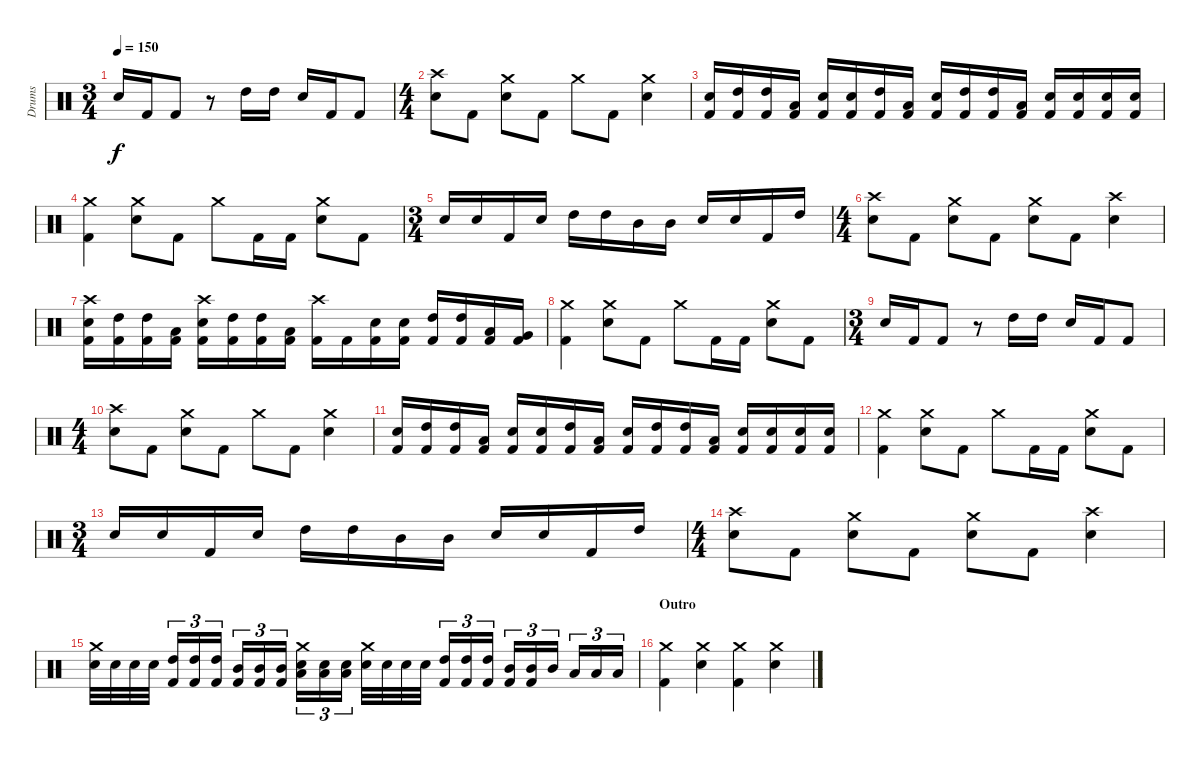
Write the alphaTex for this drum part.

\track ("Drums" "Drums") {instrument percussion}
\staff {score}
\articulation defaults
\ts (3 4)
\tempo 150
\clef neutral
\ks c "Electric Snare (hit)".16{dy f} "Kick (hit) 2".16 "Kick (hit) 2".8
r.8 "High Tom (hit)".16 "High Tom (hit)".16 "Electric Snare (hit)".16 "Kick (hit) 2".16 "Kick (hit) 2".8 |
\ts (4 4)
("Crash high (hit)" "Electric Snare (hit)").8 "Kick (hit) 2".8 ("Crash medium (hit)" "Electric Snare (hit)").8 "Kick (hit) 2".8 "Crash medium (hit)".8 "Kick (hit) 2".8 ("Crash medium (hit)" "Electric Snare (hit)").4 |
("Electric Snare (hit)" "Kick (hit) 2").16 ("High Tom (hit)" "Kick (hit) 2").16 ("High Tom (hit)" "Kick (hit) 2").16 ("Low Tom (hit)" "Kick (hit) 2").16 ("Electric Snare (hit)" "Kick (hit) 2").16 ("Electric Snare (hit)" "Kick (hit) 2").16 ("High Tom (hit)" "Kick (hit) 2").16 ("Low Tom (hit)" "Kick (hit) 2").16 ("Electric Snare (hit)" "Kick (hit) 2").16 ("High Tom (hit)" "Kick (hit) 2").16 ("High Tom (hit)" "Kick (hit) 2").16 ("Low Tom (hit)" "Kick (hit) 2").16 ("Electric Snare (hit)" "Kick (hit) 2").16 ("Electric Snare (hit)" "Kick (hit) 2").16 ("Electric Snare (hit)" "Kick (hit) 2").16 ("Electric Snare (hit)" "Kick (hit) 2").16 |
("Crash medium (hit)" "Kick (hit) 2").4 ("Crash medium (hit)" "Electric Snare (hit)").8 "Kick (hit) 2".8 "Crash medium (hit)".8 "Kick (hit) 2".16 "Kick (hit) 2".16 ("Crash medium (hit)" "Electric Snare (hit)").8 "Kick (hit) 2".8 |
\ts (3 4)
"Electric Snare (hit)".16 "Electric Snare (hit)".16 "Kick (hit) 2".16 "Electric Snare (hit)".16 "High Tom (hit)".16 "High Tom (hit)".16 "Mid Tom (hit)".16 "Mid Tom (hit)".16 "Electric Snare (hit)".16 "Electric Snare (hit)".16 "Kick (hit) 2".16 "High Tom (hit)".16 |
\ts (4 4)
("Crash high (hit)" "Electric Snare (hit)").8 "Kick (hit) 2".8 ("Crash medium (hit)" "Electric Snare (hit)").8 "Kick (hit) 2".8 ("Crash medium (hit)" "Electric Snare (hit)").8 "Kick (hit) 2".8 ("Crash high (hit)" "Electric Snare (hit)").4 |
("Crash high (hit)" "Electric Snare (hit)" "Kick (hit) 2").16 ("High Tom (hit)" "Kick (hit) 2").16 ("High Tom (hit)" "Kick (hit) 2").16 ("Low Tom (hit)" "Kick (hit) 2").16 ("Crash high (hit)" "Electric Snare (hit)" "Kick (hit) 2").16 ("High Tom (hit)" "Kick (hit) 2").16 ("High Tom (hit)" "Kick (hit) 2").16 ("Low Tom (hit)" "Kick (hit) 2").16 ("Crash high (hit)" "Kick (hit) 2").16 "Kick (hit) 2".16 ("Electric Snare (hit)" "Kick (hit) 2").16 ("Electric Snare (hit)" "Kick (hit) 2").16 ("High Tom (hit)" "Kick (hit) 2").16 ("High Tom (hit)" "Kick (hit) 2").16 ("Low Tom (hit)" "Kick (hit) 2").16 ("Very Low Tom (hit)" "Kick (hit) 2").16 |
("Crash medium (hit)" "Kick (hit) 2").4 ("Crash medium (hit)" "Electric Snare (hit)").8 "Kick (hit) 2".8 "Crash medium (hit)".8 "Kick (hit) 2".16 "Kick (hit) 2".16 ("Crash medium (hit)" "Electric Snare (hit)").8 "Kick (hit) 2".8 |
\ts (3 4)
"Electric Snare (hit)".16 "Kick (hit) 2".16 "Kick (hit) 2".8 r.8 "High Tom (hit)".16 "High Tom (hit)".16 "Electric Snare (hit)".16 "Kick (hit) 2".16 "Kick (hit) 2".8 |
\ts (4 4)
("Crash high (hit)" "Electric Snare (hit)").8 "Kick (hit) 2".8 ("Crash medium (hit)" "Electric Snare (hit)").8 "Kick (hit) 2".8 "Crash medium (hit)".8 "Kick (hit) 2".8 ("Crash medium (hit)" "Electric Snare (hit)").4 |
("Electric Snare (hit)" "Kick (hit) 2").16 ("High Tom (hit)" "Kick (hit) 2").16 ("High Tom (hit)" "Kick (hit) 2").16 ("Low Tom (hit)" "Kick (hit) 2").16 ("Electric Snare (hit)" "Kick (hit) 2").16 ("Electric Snare (hit)" "Kick (hit) 2").16 ("High Tom (hit)" "Kick (hit) 2").16 ("Low Tom (hit)" "Kick (hit) 2").16 ("Electric Snare (hit)" "Kick (hit) 2").16 ("High Tom (hit)" "Kick (hit) 2").16 ("High Tom (hit)" "Kick (hit) 2").16 ("Low Tom (hit)" "Kick (hit) 2").16 ("Electric Snare (hit)" "Kick (hit) 2").16 ("Electric Snare (hit)" "Kick (hit) 2").16 ("Electric Snare (hit)" "Kick (hit) 2").16 ("Electric Snare (hit)" "Kick (hit) 2").16 |
("Crash medium (hit)" "Kick (hit) 2").4 ("Crash medium (hit)" "Electric Snare (hit)").8 "Kick (hit) 2".8 "Crash medium (hit)".8 "Kick (hit) 2".16 "Kick (hit) 2".16 ("Crash medium (hit)" "Electric Snare (hit)").8 "Kick (hit) 2".8 |
\ts (3 4)
"Electric Snare (hit)".16 "Electric Snare (hit)".16 "Kick (hit) 2".16 "Electric Snare (hit)".16 "High Tom (hit)".16 "High Tom (hit)".16 "Mid Tom (hit)".16 "Mid Tom (hit)".16 "Electric Snare (hit)".16 "Electric Snare (hit)".16 "Kick (hit) 2".16 "High Tom (hit)".16 |
\ts (4 4)
("Crash high (hit)" "Electric Snare (hit)").8 "Kick (hit) 2".8 ("Crash medium (hit)" "Electric Snare (hit)").8 "Kick (hit) 2".8 ("Crash medium (hit)" "Electric Snare (hit)").8 "Kick (hit) 2".8 ("Crash high (hit)" "Electric Snare (hit)").4 |
("Crash medium (hit)" "Electric Snare (hit)").32 "Electric Snare (hit)".32 "Electric Snare (hit)".32 "Electric Snare (hit)".32 ("High Tom (hit)" "Kick (hit) 2").16{tu (3 2)} ("High Tom (hit)" "Kick (hit) 2").16{tu (3 2)} ("High Tom (hit)" "Kick (hit) 2").16{tu (3 2)} ("Mid Tom (hit)" "Kick (hit) 2").16{tu (3 2)} ("Mid Tom (hit)" "Kick (hit) 2").16{tu (3 2)} ("Mid Tom (hit)" "Kick (hit) 2").16{tu (3 2)} ("Crash medium (hit)" "Low Tom (hit)" "Electric Snare (hit)").16{tu (3 2)} ("Low Tom (hit)" "Electric Snare (hit)").16{tu (3 2)} ("Low Tom (hit)" "Electric Snare (hit)").16{tu (3 2)} ("Crash medium (hit)" "Electric Snare (hit)").32 "Electric Snare (hit)".32 "Electric Snare (hit)".32 "Electric Snare (hit)".32 ("High Tom (hit)" "Kick (hit) 2").16{tu (3 2)} ("High Tom (hit)" "Kick (hit) 2").16{tu (3 2)} ("High Tom (hit)" "Kick (hit) 2").16{tu (3 2)} ("Mid Tom (hit)" "Kick (hit) 2").16{tu (3 2)} ("Mid Tom (hit)" "Kick (hit) 2").16{tu (3 2)} "Mid Tom (hit)".16{tu (3 2)} "Low Tom (hit)".16{tu (3 2)} "Low Tom (hit)".16{tu (3 2)} "Low Tom (hit)".16{tu (3 2)} |
\section ("" "Outro")
("Crash medium (hit)" "Kick (hit) 2").4{volume 16} ("Crash medium (hit)" "Electric Snare (hit)").4 ("Crash medium (hit)" "Kick (hit) 2").4 ("Crash medium (hit)" "Electric Snare (hit)").4
